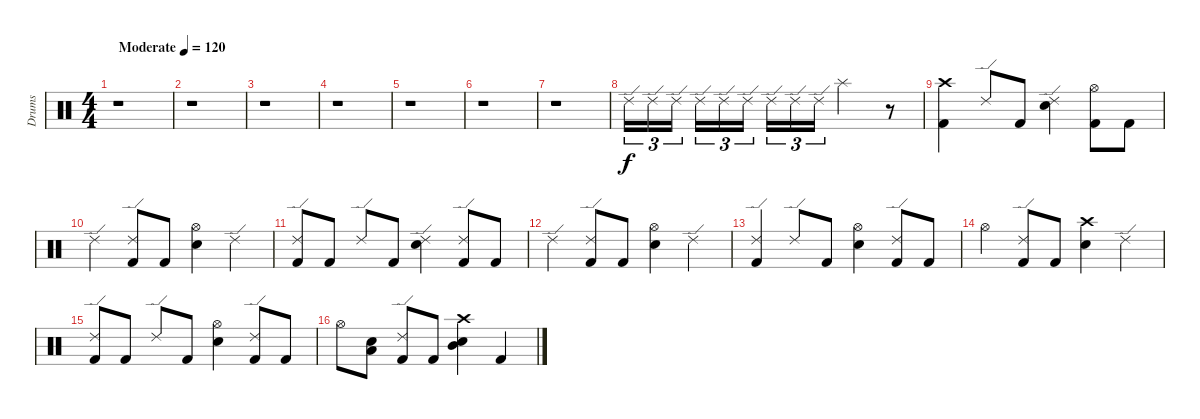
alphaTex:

\track ("Drums" "Drums") {instrument percussion}
\staff {score}
\articulation defaults
\ts (4 4)
\tempo (120 "Moderate")
\clef neutral
\ks c
r.1{dy f} |
r.1 |
r.1 |
r.1 |
r.1 |
r.1 |
r.1 |
"Ride (edge) 2".16{tu (3 2)} "Ride (edge) 2".16{tu (3 2)} "Ride (edge) 2".16{tu (3 2) beam splitsecondary} "Ride (edge) 2".16{tu (3 2)} "Ride (edge) 2".16{tu (3 2)} "Ride (edge) 2".16{tu (3 2)} "Ride (edge) 2".16{tu (3 2)} "Ride (edge) 2".16{tu (3 2)} "Ride (edge) 2".16{tu (3 2)} "Splash (hit)".2 r.8 |
("Crash high (hit)" "Kick (hit) 2").4 "Ride (edge) 2".8 "Kick (hit) 2".8 ("Ride (edge) 2" "Snare (hit) 2").4 ("Hi-Hat (open)" "Kick (hit) 2").8 "Kick (hit) 2".8 |
"Ride (edge) 2".4 ("Ride (edge) 2" "Kick (hit) 2").8 "Kick (hit) 2".8 ("Hi-Hat (open)" "Snare (hit) 2").4 "Ride (edge) 2".4 |
("Ride (edge) 2" "Kick (hit) 2").8 "Kick (hit) 2".8 "Ride (edge) 2".8 "Kick (hit) 2".8 ("Ride (edge) 2" "Snare (hit) 2").4 ("Ride (edge) 2" "Kick (hit) 2").8 "Kick (hit) 2".8 |
"Ride (edge) 2".4 ("Ride (edge) 2" "Kick (hit) 2").8 "Kick (hit) 2".8 ("Hi-Hat (open)" "Snare (hit) 2").4 "Ride (edge) 2".4 |
("Ride (edge) 2" "Kick (hit) 2").4 "Ride (edge) 2".8 "Kick (hit) 2".8 ("Hi-Hat (open)" "Snare (hit) 2").4 ("Ride (edge) 2" "Kick (hit) 2").8 "Kick (hit) 2".8 |
"Hi-Hat (open)".4 ("Ride (edge) 2" "Kick (hit) 2").8 "Kick (hit) 2".8 ("Crash high (hit)" "Snare (hit) 2").4 "Ride (edge) 2".4 |
("Ride (edge) 2" "Kick (hit) 2").8 "Kick (hit) 2".8 "Ride (edge) 2".8 "Kick (hit) 2".8 ("Hi-Hat (open)" "Snare (hit) 2").4 ("Ride (edge) 2" "Kick (hit) 2").8 "Kick (hit) 2".8 |
"Hi-Hat (open)".8 ("Low Tom (hit)" "Snare (hit) 2").8 ("Ride (edge) 2" "Kick (hit) 2").8 "Kick (hit) 2".8 ("Crash high (hit)" "Mid Tom (hit)" "Snare (hit) 2").4 "Kick (hit) 2".4
